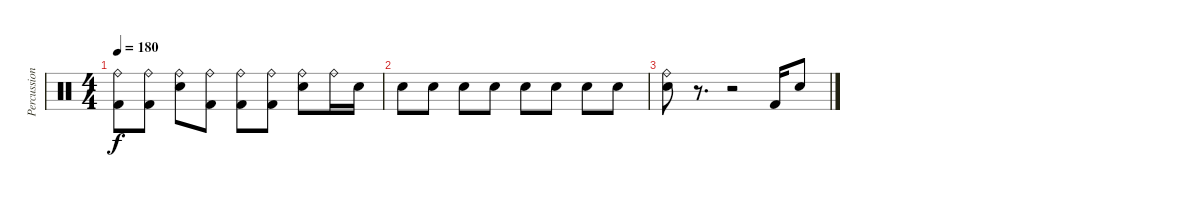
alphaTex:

\track ("Percussions" "Percussion") {instrument percussion}
\staff {score}
\articulation defaults
\ts (4 4)
\tempo 180
\clef neutral
\ks c
("Ride (bell)" "Kick (hit) 2").8{dy f} ("Ride (bell)" "Kick (hit) 2").8 ("Ride (bell)" "Snare (hit) 2").8 ("Ride (bell)" "Kick (hit) 2").8 ("Ride (bell)" "Kick (hit) 2").8 ("Ride (bell)" "Kick (hit) 2").8 ("Ride (bell)" "Snare (hit) 2").8 "Ride (bell)".16 "Snare (hit) 2".16 |
"Snare (hit) 2".8 "Snare (hit) 2".8 "Snare (hit) 2".8 "Snare (hit) 2".8 "Snare (hit) 2".8 "Snare (hit) 2".8 "Snare (hit) 2".8 "Snare (hit) 2".8 |
("Ride (bell)" "Snare (hit) 2").8 r.8{d} r.2 "Kick (hit) 2".16 "Snare (hit) 2".8
